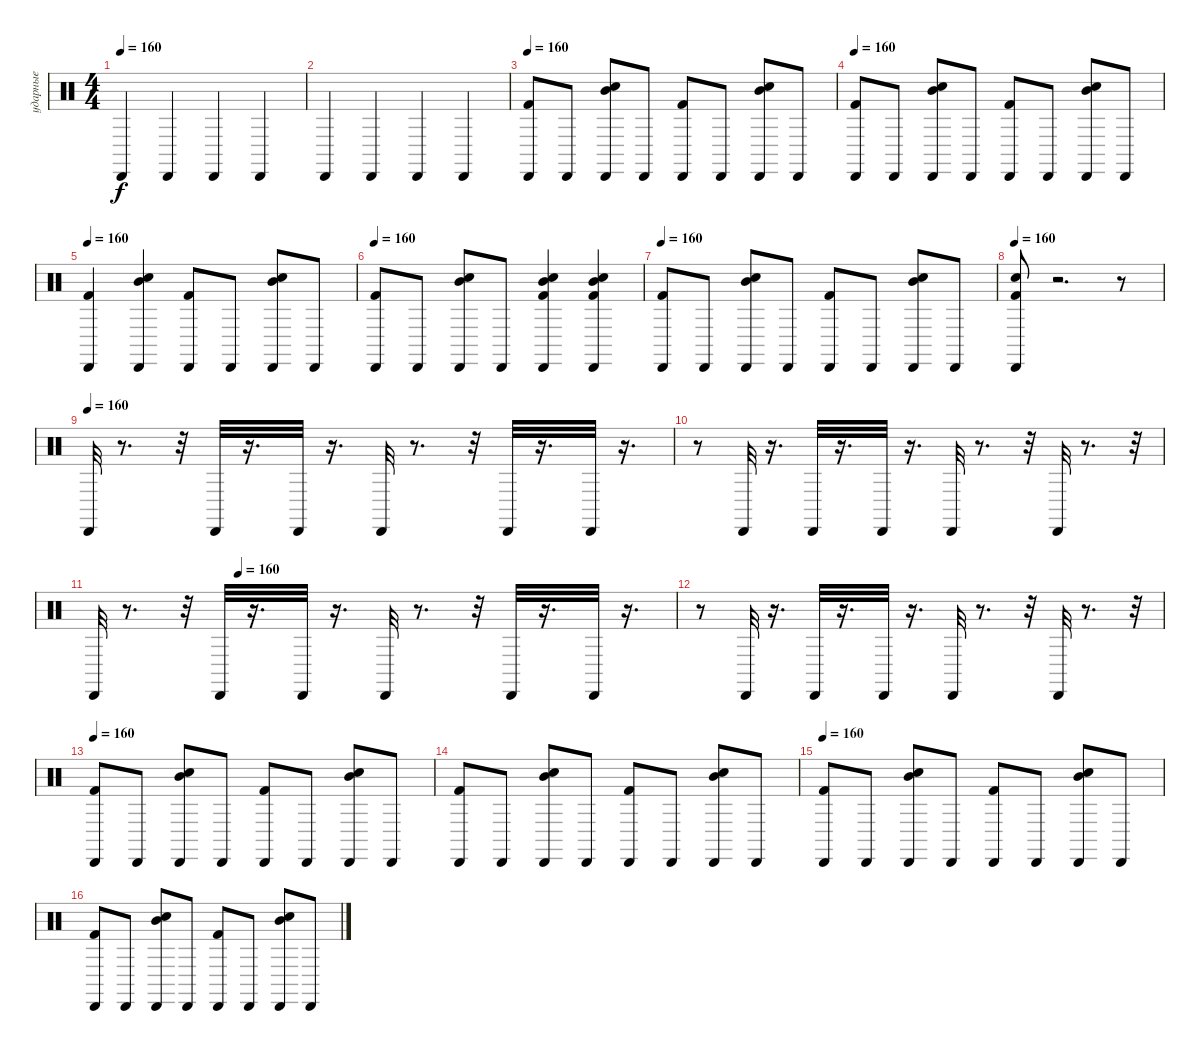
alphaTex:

\track ("ударные" "ударные") {instrument percussion}
\staff {score}
\articulation defaults
\ts (4 4)
\tempo 160
\clef neutral
\ks c "Cabasa (hit)".4{dy f} "Cabasa (hit)".4 "Cabasa (hit)".4 "Cabasa (hit)".4
|
"Cabasa (hit)".4 "Cabasa (hit)".4 "Cabasa (hit)".4 "Cabasa (hit)".4 |
\tempo 160
("Cabasa (hit)" "Kick (hit) 2").8 "Cabasa (hit)".8 ("Electric Snare (hit)" "Cabasa (hit)" "Mid Tom (hit)").8 "Cabasa (hit)".8 ("Cabasa (hit)" "Kick (hit) 2").8 "Cabasa (hit)".8 ("Mid Tom (hit)" "Electric Snare (hit)" "Cabasa (hit)").8 "Cabasa (hit)".8 |
\tempo 160
("Kick (hit) 2" "Cabasa (hit)").8 "Cabasa (hit)".8 ("Electric Snare (hit)" "Mid Tom (hit)" "Cabasa (hit)").8 "Cabasa (hit)".8 ("Cabasa (hit)" "Kick (hit) 2").8 "Cabasa (hit)".8 ("Cabasa (hit)" "Electric Snare (hit)" "Mid Tom (hit)").8 "Cabasa (hit)".8 |
\tempo 160
("Cabasa (hit)" "Kick (hit) 2").4 ("Electric Snare (hit)" "Cabasa (hit)" "Mid Tom (hit)").4 ("Cabasa (hit)" "Kick (hit) 2").8 "Cabasa (hit)".8 ("Mid Tom (hit)" "Electric Snare (hit)" "Cabasa (hit)").8 "Cabasa (hit)".8 |
\tempo 160
("Kick (hit) 2" "Cabasa (hit)").8 "Cabasa (hit)".8 ("Electric Snare (hit)" "Mid Tom (hit)" "Cabasa (hit)").8 "Cabasa (hit)".8 ("Mid Tom (hit)" "Electric Snare (hit)" "Cabasa (hit)" "Kick (hit) 2").4 ("Kick (hit) 2" "Cabasa (hit)" "Electric Snare (hit)" "Mid Tom (hit)").4 |
\tempo 160
("Cabasa (hit)" "Kick (hit) 2").8 "Cabasa (hit)".8 ("Electric Snare (hit)" "Cabasa (hit)" "Mid Tom (hit)").8 "Cabasa (hit)".8 ("Cabasa (hit)" "Kick (hit) 2").8 "Cabasa (hit)".8 ("Mid Tom (hit)" "Electric Snare (hit)" "Cabasa (hit)").8 "Cabasa (hit)".8 |
\tempo 160
("Kick (hit) 2" "Electric Snare (hit)" "Cabasa (hit)").8 r.2{d} r.8 |
\tempo (160)
"Cabasa (hit)".32 r.8{d} r.32 "Cabasa (hit)".32 r.16{d} "Cabasa (hit)".32 r.16{d} "Cabasa (hit)".32 r.8{d} r.32 "Cabasa (hit)".32 r.16{d} "Cabasa (hit)".32 r.16{d} |
r.8 "Cabasa (hit)".32 r.16{d} "Cabasa (hit)".32 r.16{d} "Cabasa (hit)".32 r.16{d} "Cabasa (hit)".32 r.8{d} r.32 "Cabasa (hit)".32 r.8{d} r.32 |
\tempo (160 0.25)
"Cabasa (hit)".32 r.8{d} r.32 "Cabasa (hit)".32 r.16{d} "Cabasa (hit)".32 r.16{d} "Cabasa (hit)".32 r.8{d} r.32 "Cabasa (hit)".32 r.16{d} "Cabasa (hit)".32 r.16{d} |
r.8 "Cabasa (hit)".32 r.16{d} "Cabasa (hit)".32 r.16{d} "Cabasa (hit)".32 r.16{d} "Cabasa (hit)".32 r.8{d} r.32 "Cabasa (hit)".32 r.8{d} r.32 |
\tempo 160
("Kick (hit) 2" "Cabasa (hit)").8 "Cabasa (hit)".8 ("Electric Snare (hit)" "Mid Tom (hit)" "Cabasa (hit)").8 "Cabasa (hit)".8 ("Cabasa (hit)" "Kick (hit) 2").8 "Cabasa (hit)".8 ("Cabasa (hit)" "Electric Snare (hit)" "Mid Tom (hit)").8 "Cabasa (hit)".8 |
("Cabasa (hit)" "Kick (hit) 2").8 "Cabasa (hit)".8 ("Electric Snare (hit)" "Cabasa (hit)" "Mid Tom (hit)").8 "Cabasa (hit)".8 ("Cabasa (hit)" "Kick (hit) 2").8 "Cabasa (hit)".8 ("Mid Tom (hit)" "Electric Snare (hit)" "Cabasa (hit)").8 "Cabasa (hit)".8 |
\tempo 160
("Kick (hit) 2" "Cabasa (hit)").8 "Cabasa (hit)".8 ("Electric Snare (hit)" "Mid Tom (hit)" "Cabasa (hit)").8 "Cabasa (hit)".8 ("Cabasa (hit)" "Kick (hit) 2").8 "Cabasa (hit)".8 ("Cabasa (hit)" "Electric Snare (hit)" "Mid Tom (hit)").8 "Cabasa (hit)".8 |
("Cabasa (hit)" "Kick (hit) 2").8 "Cabasa (hit)".8 ("Electric Snare (hit)" "Cabasa (hit)" "Mid Tom (hit)").8 "Cabasa (hit)".8 ("Cabasa (hit)" "Kick (hit) 2").8 "Cabasa (hit)".8 ("Mid Tom (hit)" "Electric Snare (hit)" "Cabasa (hit)").8 "Cabasa (hit)".8
